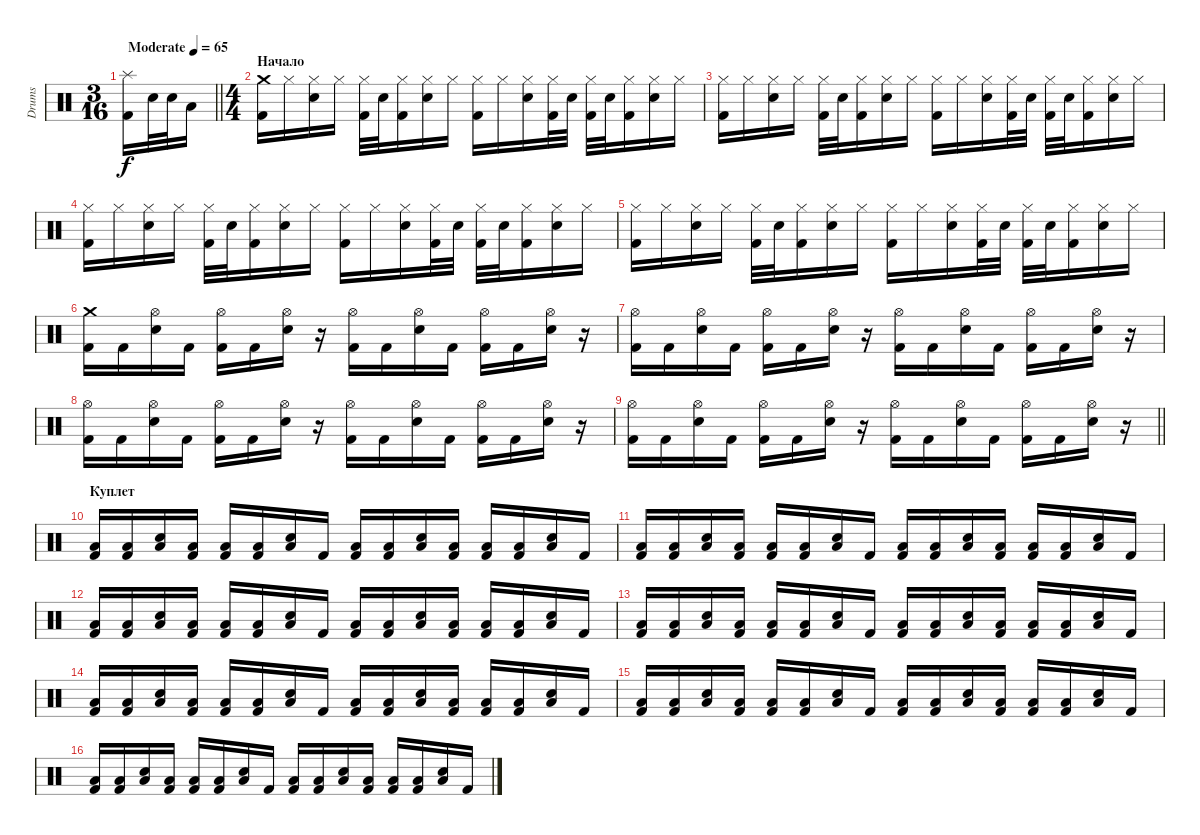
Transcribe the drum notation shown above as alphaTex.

\track ("Drums" "Drums") {instrument percussion}
\staff {score}
\articulation defaults
\ts (3 16)
\tempo (65 "Moderate")
\clef neutral
\barLineRight lightlight
\ks c
("Splash (hit)" "Kick (hit) 2").16{dy f} "Electric Snare (hit)".32 "Electric Snare (hit)".32 "Low Tom (hit)".16 |
\ts (4 4)
\section ("" "Начало")
("Crash medium (hit)" "Kick (hit) 2").16 "Hi-Hat (closed)".16 ("Hi-Hat (closed)" "Snare (hit) 2").16 "Hi-Hat (closed)".16 ("Hi-Hat (closed)" "Kick (hit) 2").32 "Snare (hit) 2".32 ("Hi-Hat (closed)" "Kick (hit) 2").16 ("Hi-Hat (closed)" "Snare (hit) 2").16 "Hi-Hat (closed)".16 ("Hi-Hat (closed)" "Kick (hit) 2").16 "Hi-Hat (closed)".16 ("Hi-Hat (closed)" "Snare (hit) 2").16 ("Hi-Hat (closed)" "Kick (hit) 2").32 "Snare (hit) 2".32 ("Hi-Hat (closed)" "Kick (hit) 2").32 "Snare (hit) 2".32 ("Hi-Hat (closed)" "Kick (hit) 2").16 ("Hi-Hat (closed)" "Snare (hit) 2").16 "Hi-Hat (closed)".16 |
("Hi-Hat (closed)" "Kick (hit) 2").16 "Hi-Hat (closed)".16 ("Hi-Hat (closed)" "Snare (hit) 2").16 "Hi-Hat (closed)".16 ("Hi-Hat (closed)" "Kick (hit) 2").32 "Snare (hit) 2".32 ("Hi-Hat (closed)" "Kick (hit) 2").16 ("Hi-Hat (closed)" "Snare (hit) 2").16 "Hi-Hat (closed)".16 ("Hi-Hat (closed)" "Kick (hit) 2").16 "Hi-Hat (closed)".16 ("Hi-Hat (closed)" "Snare (hit) 2").16 ("Hi-Hat (closed)" "Kick (hit) 2").32 "Snare (hit) 2".32 ("Hi-Hat (closed)" "Kick (hit) 2").32 "Snare (hit) 2".32 ("Hi-Hat (closed)" "Kick (hit) 2").16 ("Hi-Hat (closed)" "Snare (hit) 2").16 "Hi-Hat (closed)".16 |
("Hi-Hat (closed)" "Kick (hit) 2").16 "Hi-Hat (closed)".16 ("Hi-Hat (closed)" "Snare (hit) 2").16 "Hi-Hat (closed)".16 ("Hi-Hat (closed)" "Kick (hit) 2").32 "Snare (hit) 2".32 ("Hi-Hat (closed)" "Kick (hit) 2").16 ("Hi-Hat (closed)" "Snare (hit) 2").16 "Hi-Hat (closed)".16 ("Hi-Hat (closed)" "Kick (hit) 2").16 "Hi-Hat (closed)".16 ("Hi-Hat (closed)" "Snare (hit) 2").16 ("Hi-Hat (closed)" "Kick (hit) 2").32 "Snare (hit) 2".32 ("Hi-Hat (closed)" "Kick (hit) 2").32 "Snare (hit) 2".32 ("Hi-Hat (closed)" "Kick (hit) 2").16 ("Hi-Hat (closed)" "Snare (hit) 2").16 "Hi-Hat (closed)".16 |
("Hi-Hat (closed)" "Kick (hit) 2").16 "Hi-Hat (closed)".16 ("Hi-Hat (closed)" "Snare (hit) 2").16 "Hi-Hat (closed)".16 ("Hi-Hat (closed)" "Kick (hit) 2").32 "Snare (hit) 2".32 ("Hi-Hat (closed)" "Kick (hit) 2").16 ("Hi-Hat (closed)" "Snare (hit) 2").16 "Hi-Hat (closed)".16 ("Hi-Hat (closed)" "Kick (hit) 2").16 "Hi-Hat (closed)".16 ("Hi-Hat (closed)" "Snare (hit) 2").16 ("Hi-Hat (closed)" "Kick (hit) 2").32 "Snare (hit) 2".32 ("Hi-Hat (closed)" "Kick (hit) 2").32 "Snare (hit) 2".32 ("Hi-Hat (closed)" "Kick (hit) 2").16 ("Hi-Hat (closed)" "Snare (hit) 2").16 "Hi-Hat (closed)".16 |
("Crash medium (hit)" "Kick (hit) 2").16 "Kick (hit) 2".16 ("Hi-Hat (open)" "Snare (hit) 2").16 "Kick (hit) 2".16 ("Hi-Hat (open)" "Kick (hit) 2").16 "Kick (hit) 2".16 ("Hi-Hat (open)" "Snare (hit) 2").16 r.16 ("Hi-Hat (open)" "Kick (hit) 2").16 "Kick (hit) 2".16 ("Hi-Hat (open)" "Snare (hit) 2").16 "Kick (hit) 2".16 ("Hi-Hat (open)" "Kick (hit) 2").16 "Kick (hit) 2".16 ("Hi-Hat (open)" "Snare (hit) 2").16 r.16 |
("Hi-Hat (open)" "Kick (hit) 2").16 "Kick (hit) 2".16 ("Hi-Hat (open)" "Snare (hit) 2").16 "Kick (hit) 2".16 ("Hi-Hat (open)" "Kick (hit) 2").16 "Kick (hit) 2".16 ("Hi-Hat (open)" "Snare (hit) 2").16 r.16 ("Hi-Hat (open)" "Kick (hit) 2").16 "Kick (hit) 2".16 ("Hi-Hat (open)" "Snare (hit) 2").16 "Kick (hit) 2".16 ("Hi-Hat (open)" "Kick (hit) 2").16 "Kick (hit) 2".16 ("Hi-Hat (open)" "Snare (hit) 2").16 r.16 |
("Hi-Hat (open)" "Kick (hit) 2").16 "Kick (hit) 2".16 ("Hi-Hat (open)" "Snare (hit) 2").16 "Kick (hit) 2".16 ("Hi-Hat (open)" "Kick (hit) 2").16 "Kick (hit) 2".16 ("Hi-Hat (open)" "Snare (hit) 2").16 r.16 ("Hi-Hat (open)" "Kick (hit) 2").16 "Kick (hit) 2".16 ("Hi-Hat (open)" "Snare (hit) 2").16 "Kick (hit) 2".16 ("Hi-Hat (open)" "Kick (hit) 2").16 "Kick (hit) 2".16 ("Hi-Hat (open)" "Snare (hit) 2").16 r.16 |
\barLineRight lightlight
("Hi-Hat (open)" "Kick (hit) 2").16 "Kick (hit) 2".16 ("Hi-Hat (open)" "Snare (hit) 2").16 "Kick (hit) 2".16 ("Hi-Hat (open)" "Kick (hit) 2").16 "Kick (hit) 2".16 ("Hi-Hat (open)" "Snare (hit) 2").16 r.16 ("Hi-Hat (open)" "Kick (hit) 2").16 "Kick (hit) 2".16 ("Hi-Hat (open)" "Snare (hit) 2").16 "Kick (hit) 2".16 ("Hi-Hat (open)" "Kick (hit) 2").16 "Kick (hit) 2".16 ("Hi-Hat (open)" "Snare (hit) 2").16 r.16 |
\section ("" "Куплет")
("Low Tom (hit)" "Kick (hit) 2").16 ("Low Tom (hit)" "Kick (hit) 2").16 ("Low Tom (hit)" "Snare (hit) 2").16 ("Low Tom (hit)" "Kick (hit) 2").16 ("Low Tom (hit)" "Kick (hit) 2").16 ("Low Tom (hit)" "Kick (hit) 2").16 ("Low Tom (hit)" "Snare (hit) 2").16 "Kick (hit) 2".16 ("Low Tom (hit)" "Kick (hit) 2").16 ("Low Tom (hit)" "Kick (hit) 2").16 ("Low Tom (hit)" "Snare (hit) 2").16 ("Low Tom (hit)" "Kick (hit) 2").16 ("Low Tom (hit)" "Kick (hit) 2").16 ("Low Tom (hit)" "Kick (hit) 2").16 ("Low Tom (hit)" "Snare (hit) 2").16 "Kick (hit) 2".16 |
("Low Tom (hit)" "Kick (hit) 2").16 ("Low Tom (hit)" "Kick (hit) 2").16 ("Low Tom (hit)" "Snare (hit) 2").16 ("Low Tom (hit)" "Kick (hit) 2").16 ("Low Tom (hit)" "Kick (hit) 2").16 ("Low Tom (hit)" "Kick (hit) 2").16 ("Low Tom (hit)" "Snare (hit) 2").16 "Kick (hit) 2".16 ("Low Tom (hit)" "Kick (hit) 2").16 ("Low Tom (hit)" "Kick (hit) 2").16 ("Low Tom (hit)" "Snare (hit) 2").16 ("Low Tom (hit)" "Kick (hit) 2").16 ("Low Tom (hit)" "Kick (hit) 2").16 ("Low Tom (hit)" "Kick (hit) 2").16 ("Low Tom (hit)" "Snare (hit) 2").16 "Kick (hit) 2".16 |
("Low Tom (hit)" "Kick (hit) 2").16 ("Low Tom (hit)" "Kick (hit) 2").16 ("Low Tom (hit)" "Snare (hit) 2").16 ("Low Tom (hit)" "Kick (hit) 2").16 ("Low Tom (hit)" "Kick (hit) 2").16 ("Low Tom (hit)" "Kick (hit) 2").16 ("Low Tom (hit)" "Snare (hit) 2").16 "Kick (hit) 2".16 ("Low Tom (hit)" "Kick (hit) 2").16 ("Low Tom (hit)" "Kick (hit) 2").16 ("Low Tom (hit)" "Snare (hit) 2").16 ("Low Tom (hit)" "Kick (hit) 2").16 ("Low Tom (hit)" "Kick (hit) 2").16 ("Low Tom (hit)" "Kick (hit) 2").16 ("Low Tom (hit)" "Snare (hit) 2").16 "Kick (hit) 2".16 |
("Low Tom (hit)" "Kick (hit) 2").16 ("Low Tom (hit)" "Kick (hit) 2").16 ("Low Tom (hit)" "Snare (hit) 2").16 ("Low Tom (hit)" "Kick (hit) 2").16 ("Low Tom (hit)" "Kick (hit) 2").16 ("Low Tom (hit)" "Kick (hit) 2").16 ("Low Tom (hit)" "Snare (hit) 2").16 "Kick (hit) 2".16 ("Low Tom (hit)" "Kick (hit) 2").16 ("Low Tom (hit)" "Kick (hit) 2").16 ("Low Tom (hit)" "Snare (hit) 2").16 ("Low Tom (hit)" "Kick (hit) 2").16 ("Low Tom (hit)" "Kick (hit) 2").16 ("Low Tom (hit)" "Kick (hit) 2").16 ("Low Tom (hit)" "Snare (hit) 2").16 "Kick (hit) 2".16 |
("Low Tom (hit)" "Kick (hit) 2").16 ("Low Tom (hit)" "Kick (hit) 2").16 ("Low Tom (hit)" "Snare (hit) 2").16 ("Low Tom (hit)" "Kick (hit) 2").16 ("Low Tom (hit)" "Kick (hit) 2").16 ("Low Tom (hit)" "Kick (hit) 2").16 ("Low Tom (hit)" "Snare (hit) 2").16 "Kick (hit) 2".16 ("Low Tom (hit)" "Kick (hit) 2").16 ("Low Tom (hit)" "Kick (hit) 2").16 ("Low Tom (hit)" "Snare (hit) 2").16 ("Low Tom (hit)" "Kick (hit) 2").16 ("Low Tom (hit)" "Kick (hit) 2").16 ("Low Tom (hit)" "Kick (hit) 2").16 ("Low Tom (hit)" "Snare (hit) 2").16 "Kick (hit) 2".16 |
("Low Tom (hit)" "Kick (hit) 2").16 ("Low Tom (hit)" "Kick (hit) 2").16 ("Low Tom (hit)" "Snare (hit) 2").16 ("Low Tom (hit)" "Kick (hit) 2").16 ("Low Tom (hit)" "Kick (hit) 2").16 ("Low Tom (hit)" "Kick (hit) 2").16 ("Low Tom (hit)" "Snare (hit) 2").16 "Kick (hit) 2".16 ("Low Tom (hit)" "Kick (hit) 2").16 ("Low Tom (hit)" "Kick (hit) 2").16 ("Low Tom (hit)" "Snare (hit) 2").16 ("Low Tom (hit)" "Kick (hit) 2").16 ("Low Tom (hit)" "Kick (hit) 2").16 ("Low Tom (hit)" "Kick (hit) 2").16 ("Low Tom (hit)" "Snare (hit) 2").16 "Kick (hit) 2".16 |
("Low Tom (hit)" "Kick (hit) 2").16 ("Low Tom (hit)" "Kick (hit) 2").16 ("Low Tom (hit)" "Snare (hit) 2").16 ("Low Tom (hit)" "Kick (hit) 2").16 ("Low Tom (hit)" "Kick (hit) 2").16 ("Low Tom (hit)" "Kick (hit) 2").16 ("Low Tom (hit)" "Snare (hit) 2").16 "Kick (hit) 2".16 ("Low Tom (hit)" "Kick (hit) 2").16 ("Low Tom (hit)" "Kick (hit) 2").16 ("Low Tom (hit)" "Snare (hit) 2").16 ("Low Tom (hit)" "Kick (hit) 2").16 ("Low Tom (hit)" "Kick (hit) 2").16 ("Low Tom (hit)" "Kick (hit) 2").16 ("Low Tom (hit)" "Snare (hit) 2").16 "Kick (hit) 2".16
